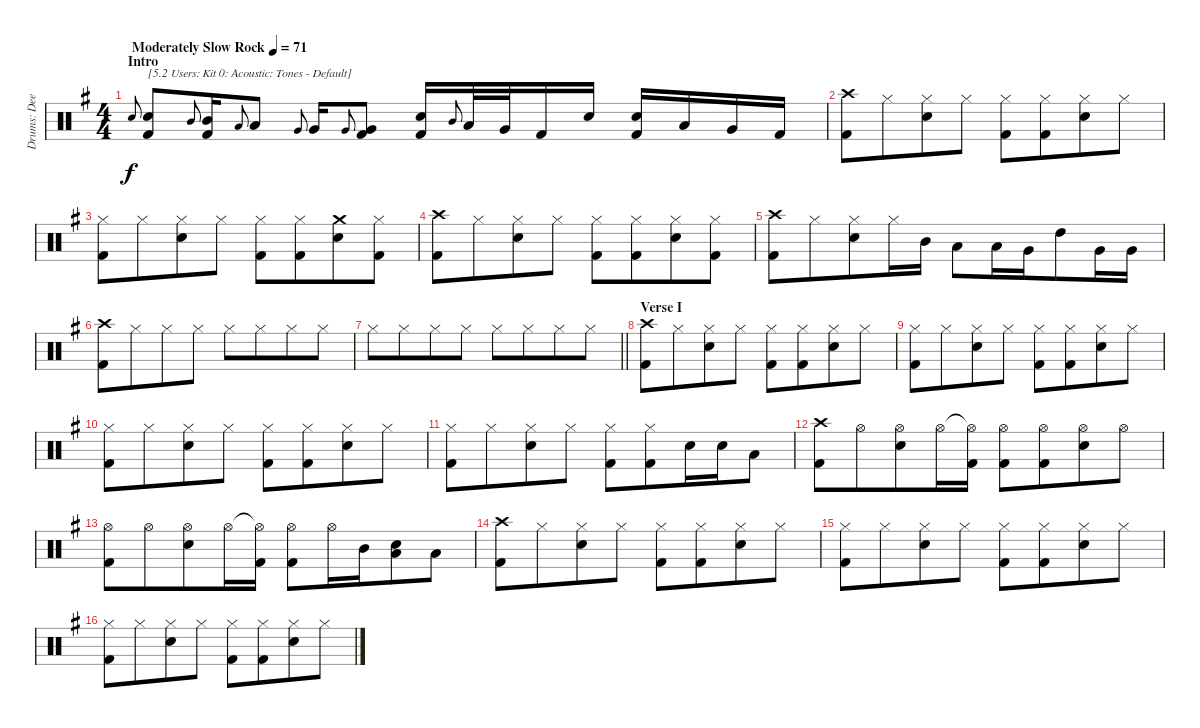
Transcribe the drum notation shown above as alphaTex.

\track ("Drums: Deen" "Drums: Dee") {instrument percussion}
\staff {score}
\articulation defaults
\ts (4 4)
\section ("" "Intro")
\tempo (71 "Moderately Slow Rock")
\clef neutral
\ks g "Electric Snare (hit)".8{gr onbeat dy f}
("Electric Snare (hit)" "Kick (hit) 2").8{txt "[5.2 Users: Kit 0: Acoustic: Tones - Default]"} "Mid Tom (hit)".8{gr onbeat} ("Mid Tom (hit)" "Kick (hit) 2").16 "Low Tom (hit)".8{gr onbeat} "Low Tom (hit)".8 "Very Low Tom (hit)".8{gr onbeat} "Very Low Tom (hit)".16 "Very Low Tom (hit)".8{gr onbeat} ("Very Low Tom (hit)" "Kick (hit) 2").8 ("Electric Snare (hit)" "Kick (hit) 2").16 "Mid Tom (hit)".8{gr onbeat} "Low Tom (hit)".32 "Very Low Tom (hit)".32 "Kick (hit) 2".16 "Electric Snare (hit)".16 ("Electric Snare (hit)" "Kick (hit) 2").16 "Low Tom (hit)".16 "Very Low Tom (hit)".16 "Kick (hit) 2".16 |
("Crash high (hit)" "Kick (hit) 2").8 "Hi-Hat (closed)".8{beam merge} ("Hi-Hat (closed)" "Electric Snare (hit)").8 "Hi-Hat (closed)".8 ("Hi-Hat (closed)" "Kick (hit) 2").8 ("Hi-Hat (closed)" "Kick (hit) 2").8{beam merge} ("Hi-Hat (closed)" "Electric Snare (hit)").8 "Hi-Hat (closed)".8 |
("Hi-Hat (closed)" "Kick (hit) 2").8 "Hi-Hat (closed)".8{beam merge} ("Hi-Hat (closed)" "Electric Snare (hit)").8 "Hi-Hat (closed)".8 ("Hi-Hat (closed)" "Kick (hit) 2").8 ("Hi-Hat (closed)" "Kick (hit) 2").8{beam merge} ("Crash medium (hit)" "Electric Snare (hit)").8 ("Hi-Hat (closed)" "Kick (hit) 2").8 |
("Crash high (hit)" "Kick (hit) 2").8 "Hi-Hat (closed)".8{beam merge} ("Hi-Hat (closed)" "Electric Snare (hit)").8 "Hi-Hat (closed)".8 ("Hi-Hat (closed)" "Kick (hit) 2").8 ("Hi-Hat (closed)" "Kick (hit) 2").8{beam merge} ("Hi-Hat (closed)" "Electric Snare (hit)").8 ("Hi-Hat (closed)" "Kick (hit) 2").8 |
("Crash high (hit)" "Kick (hit) 2").8 "Hi-Hat (closed)".8{beam merge} ("Hi-Hat (closed)" "Electric Snare (hit)").8 "Hi-Hat (closed)".16 "Mid Tom (hit)".16 "Low Tom (hit)".8 "Low Tom (hit)".16 "Very Low Tom (hit)".16{beam merge} "High Tom (hit)".8 "Very Low Tom (hit)".16 "Very Low Tom (hit)".16 |
("Crash high (hit)" "Kick (hit) 2").8 "Hi-Hat (closed)".8{beam merge} "Hi-Hat (closed)".8 "Hi-Hat (closed)".8 "Hi-Hat (closed)".8 "Hi-Hat (closed)".8{beam merge} "Hi-Hat (closed)".8 "Hi-Hat (closed)".8 |
\barLineRight lightlight "Hi-Hat (closed)".8 "Hi-Hat (closed)".8{beam merge} "Hi-Hat (closed)".8 "Hi-Hat (closed)".8 "Hi-Hat (closed)".8 "Hi-Hat (closed)".8{beam merge} "Hi-Hat (closed)".8 "Hi-Hat (closed)".8
|
\section ("" "Verse I")
("Crash high (hit)" "Kick (hit) 2").8 "Hi-Hat (closed)".8{beam merge} ("Hi-Hat (closed)" "Electric Snare (hit)").8 "Hi-Hat (closed)".8 ("Hi-Hat (closed)" "Kick (hit) 2").8 ("Hi-Hat (closed)" "Kick (hit) 2").8{beam merge} ("Hi-Hat (closed)" "Electric Snare (hit)").8 "Hi-Hat (closed)".8 |
("Hi-Hat (closed)" "Kick (hit) 2").8 "Hi-Hat (closed)".8{beam merge} ("Hi-Hat (closed)" "Electric Snare (hit)").8 "Hi-Hat (closed)".8 ("Hi-Hat (closed)" "Kick (hit) 2").8 ("Hi-Hat (closed)" "Kick (hit) 2").8{beam merge} ("Hi-Hat (closed)" "Electric Snare (hit)").8 "Hi-Hat (closed)".8 |
("Hi-Hat (closed)" "Kick (hit) 2").8 "Hi-Hat (closed)".8{beam merge} ("Hi-Hat (closed)" "Electric Snare (hit)").8 "Hi-Hat (closed)".8 ("Hi-Hat (closed)" "Kick (hit) 2").8 ("Hi-Hat (closed)" "Kick (hit) 2").8{beam merge} ("Hi-Hat (closed)" "Electric Snare (hit)").8 "Hi-Hat (closed)".8 |
("Hi-Hat (closed)" "Kick (hit) 2").8 "Hi-Hat (closed)".8{beam merge} ("Hi-Hat (closed)" "Electric Snare (hit)").8 "Hi-Hat (closed)".8 ("Hi-Hat (closed)" "Kick (hit) 2").8 ("Hi-Hat (closed)" "Kick (hit) 2").8{beam merge} "Electric Snare (hit)".16{beam merge} "Electric Snare (hit)".16{beam merge} "Low Tom (hit)".8 |
("Crash high (hit)" "Kick (hit) 2").8 "Hi-Hat (open)".8{beam merge} ("Hi-Hat (open)" "Electric Snare (hit)").8 "Hi-Hat (open)".16 ("Hi-Hat (open)"{t} "Kick (hit) 2").16 ("Hi-Hat (open)" "Kick (hit) 2").8 ("Hi-Hat (open)" "Kick (hit) 2").8{beam merge} ("Hi-Hat (open)" "Electric Snare (hit)").8 "Hi-Hat (open)".8 |
("Hi-Hat (open)" "Kick (hit) 2").8 "Hi-Hat (open)".8{beam merge} ("Hi-Hat (open)" "Electric Snare (hit)").8 "Hi-Hat (open)".16 ("Hi-Hat (open)"{t} "Kick (hit) 2").16 ("Hi-Hat (open)" "Kick (hit) 2").8 "Hi-Hat (open)".16 "Mid Tom (hit)".16{beam merge} ("Electric Snare (hit)" "Low Tom (hit)").8 "Low Tom (hit)".8 |
("Crash high (hit)" "Kick (hit) 2").8 "Hi-Hat (closed)".8{beam merge} ("Hi-Hat (closed)" "Electric Snare (hit)").8 "Hi-Hat (closed)".8 ("Hi-Hat (closed)" "Kick (hit) 2").8 ("Hi-Hat (closed)" "Kick (hit) 2").8{beam merge} ("Hi-Hat (closed)" "Electric Snare (hit)").8 "Hi-Hat (closed)".8 |
("Hi-Hat (closed)" "Kick (hit) 2").8 "Hi-Hat (closed)".8{beam merge} ("Hi-Hat (closed)" "Electric Snare (hit)").8 "Hi-Hat (closed)".8 ("Hi-Hat (closed)" "Kick (hit) 2").8 ("Hi-Hat (closed)" "Kick (hit) 2").8{beam merge} ("Hi-Hat (closed)" "Electric Snare (hit)").8 "Hi-Hat (closed)".8 |
("Hi-Hat (closed)" "Kick (hit) 2").8 "Hi-Hat (closed)".8{beam merge} ("Hi-Hat (closed)" "Electric Snare (hit)").8 "Hi-Hat (closed)".8 ("Hi-Hat (closed)" "Kick (hit) 2").8 ("Hi-Hat (closed)" "Kick (hit) 2").8{beam merge} ("Hi-Hat (closed)" "Electric Snare (hit)").8 "Hi-Hat (closed)".8
